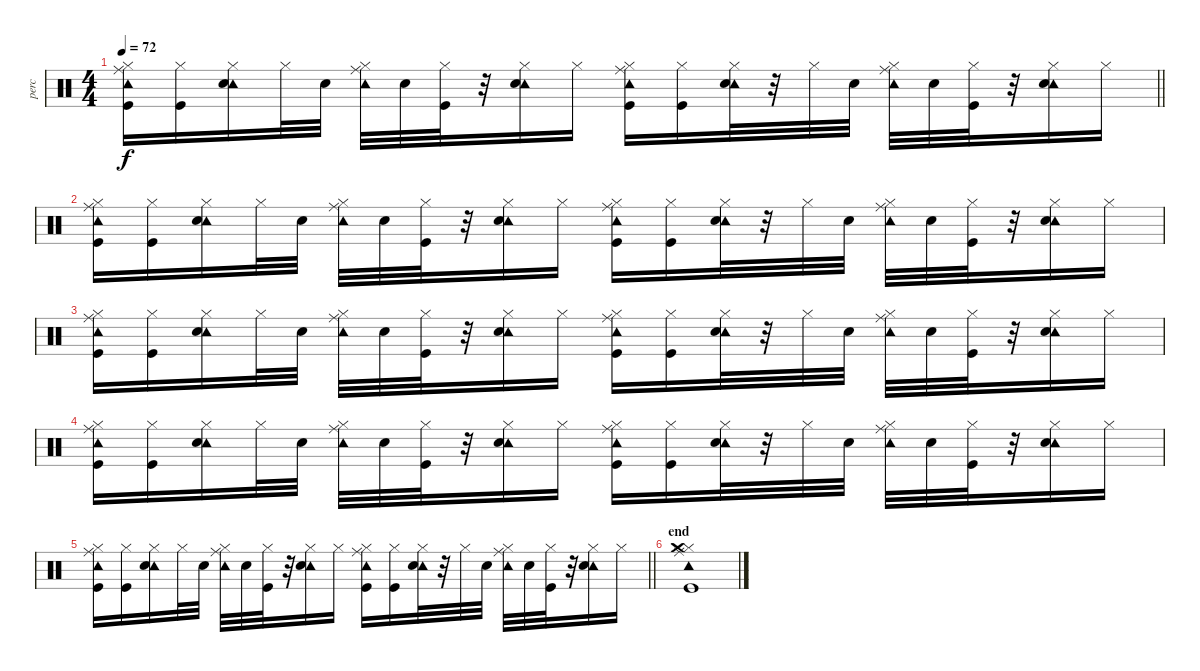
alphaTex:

\track ("perc" "perc") {instrument percussion}
\staff {score}
\articulation defaults
\ts (4 4)
\tempo 72
\clef neutral
\barLineRight lightlight
\ks c
("Tambourine (hit)" "Hi-Hat (closed)" "Ride (middle)" "Kick (hit)").16{dy f} ("Hi-Hat (closed)" "Kick (hit)").16 ("Tambourine (hit)" "Hi-Hat (closed)" "Snare (hit) 2").16 "Hi-Hat (closed)".32 "Snare (hit) 2".32 ("Tambourine (hit)" "Hi-Hat (closed)" "Ride (middle)").32 "Snare (hit) 2".32 ("Hi-Hat (closed)" "Kick (hit)").32 r.32 ("Tambourine (hit)" "Hi-Hat (closed)" "Snare (hit) 2").16 "Hi-Hat (closed)".16 ("Tambourine (hit)" "Hi-Hat (closed)" "Ride (middle)" "Kick (hit)").16 ("Hi-Hat (closed)" "Kick (hit)").16 ("Tambourine (hit)" "Hi-Hat (closed)" "Snare (hit) 2").32 r.32 "Hi-Hat (closed)".32 "Snare (hit) 2".32 ("Tambourine (hit)" "Hi-Hat (closed)" "Ride (middle)").32 "Snare (hit) 2".32 ("Hi-Hat (closed)" "Kick (hit)").32 r.32 ("Tambourine (hit)" "Hi-Hat (closed)" "Snare (hit) 2").16 "Hi-Hat (closed)".16 |
\section ("" "")
("Tambourine (hit)" "Hi-Hat (closed)" "Ride (middle)" "Kick (hit)").16 ("Hi-Hat (closed)" "Kick (hit)").16 ("Tambourine (hit)" "Hi-Hat (closed)" "Snare (hit) 2").16 "Hi-Hat (closed)".32 "Snare (hit) 2".32 ("Tambourine (hit)" "Hi-Hat (closed)" "Ride (middle)").32 "Snare (hit) 2".32 ("Hi-Hat (closed)" "Kick (hit)").32 r.32 ("Tambourine (hit)" "Hi-Hat (closed)" "Snare (hit) 2").16 "Hi-Hat (closed)".16 ("Tambourine (hit)" "Hi-Hat (closed)" "Ride (middle)" "Kick (hit)").16 ("Hi-Hat (closed)" "Kick (hit)").16 ("Tambourine (hit)" "Hi-Hat (closed)" "Snare (hit) 2").32 r.32 "Hi-Hat (closed)".32 "Snare (hit) 2".32 ("Tambourine (hit)" "Hi-Hat (closed)" "Ride (middle)").32 "Snare (hit) 2".32 ("Hi-Hat (closed)" "Kick (hit)").32 r.32 ("Tambourine (hit)" "Hi-Hat (closed)" "Snare (hit) 2").16 "Hi-Hat (closed)".16 |
("Tambourine (hit)" "Hi-Hat (closed)" "Ride (middle)" "Kick (hit)").16 ("Hi-Hat (closed)" "Kick (hit)").16 ("Tambourine (hit)" "Hi-Hat (closed)" "Snare (hit) 2").16 "Hi-Hat (closed)".32 "Snare (hit) 2".32 ("Tambourine (hit)" "Hi-Hat (closed)" "Ride (middle)").32 "Snare (hit) 2".32 ("Hi-Hat (closed)" "Kick (hit)").32 r.32 ("Tambourine (hit)" "Hi-Hat (closed)" "Snare (hit) 2").16 "Hi-Hat (closed)".16 ("Tambourine (hit)" "Hi-Hat (closed)" "Ride (middle)" "Kick (hit)").16 ("Hi-Hat (closed)" "Kick (hit)").16 ("Tambourine (hit)" "Hi-Hat (closed)" "Snare (hit) 2").32 r.32 "Hi-Hat (closed)".32 "Snare (hit) 2".32 ("Tambourine (hit)" "Hi-Hat (closed)" "Ride (middle)").32 "Snare (hit) 2".32 ("Hi-Hat (closed)" "Kick (hit)").32 r.32 ("Tambourine (hit)" "Hi-Hat (closed)" "Snare (hit) 2").16 "Hi-Hat (closed)".16 |
("Tambourine (hit)" "Hi-Hat (closed)" "Ride (middle)" "Kick (hit)").16 ("Hi-Hat (closed)" "Kick (hit)").16 ("Tambourine (hit)" "Hi-Hat (closed)" "Snare (hit) 2").16 "Hi-Hat (closed)".32 "Snare (hit) 2".32 ("Tambourine (hit)" "Hi-Hat (closed)" "Ride (middle)").32 "Snare (hit) 2".32 ("Hi-Hat (closed)" "Kick (hit)").32 r.32 ("Tambourine (hit)" "Hi-Hat (closed)" "Snare (hit) 2").16 "Hi-Hat (closed)".16 ("Tambourine (hit)" "Hi-Hat (closed)" "Ride (middle)" "Kick (hit)").16 ("Hi-Hat (closed)" "Kick (hit)").16 ("Tambourine (hit)" "Hi-Hat (closed)" "Snare (hit) 2").32 r.32 "Hi-Hat (closed)".32 "Snare (hit) 2".32 ("Tambourine (hit)" "Hi-Hat (closed)" "Ride (middle)").32 "Snare (hit) 2".32 ("Hi-Hat (closed)" "Kick (hit)").32 r.32 ("Tambourine (hit)" "Hi-Hat (closed)" "Snare (hit) 2").16 "Hi-Hat (closed)".16 |
\barLineRight lightlight
("Tambourine (hit)" "Hi-Hat (closed)" "Ride (middle)" "Kick (hit)").16 ("Hi-Hat (closed)" "Kick (hit)").16 ("Tambourine (hit)" "Hi-Hat (closed)" "Snare (hit) 2").16 "Hi-Hat (closed)".32 "Snare (hit) 2".32 ("Tambourine (hit)" "Hi-Hat (closed)" "Ride (middle)").32 "Snare (hit) 2".32 ("Hi-Hat (closed)" "Kick (hit)").32 r.32 ("Tambourine (hit)" "Hi-Hat (closed)" "Snare (hit) 2").16 "Hi-Hat (closed)".16 ("Tambourine (hit)" "Hi-Hat (closed)" "Ride (middle)" "Kick (hit)").16 ("Hi-Hat (closed)" "Kick (hit)").16 ("Tambourine (hit)" "Hi-Hat (closed)" "Snare (hit) 2").32 r.32 "Hi-Hat (closed)".32 "Snare (hit) 2".32 ("Tambourine (hit)" "Hi-Hat (closed)" "Ride (middle)").32 "Snare (hit) 2".32 ("Hi-Hat (closed)" "Kick (hit)").32 r.32 ("Tambourine (hit)" "Hi-Hat (closed)" "Snare (hit) 2").16 "Hi-Hat (closed)".16 |
\section ("" "end")
("Tambourine (hit)" "Hi-Hat (closed)" "Crash medium (hit)" "Ride (middle)" "Kick (hit)").1
